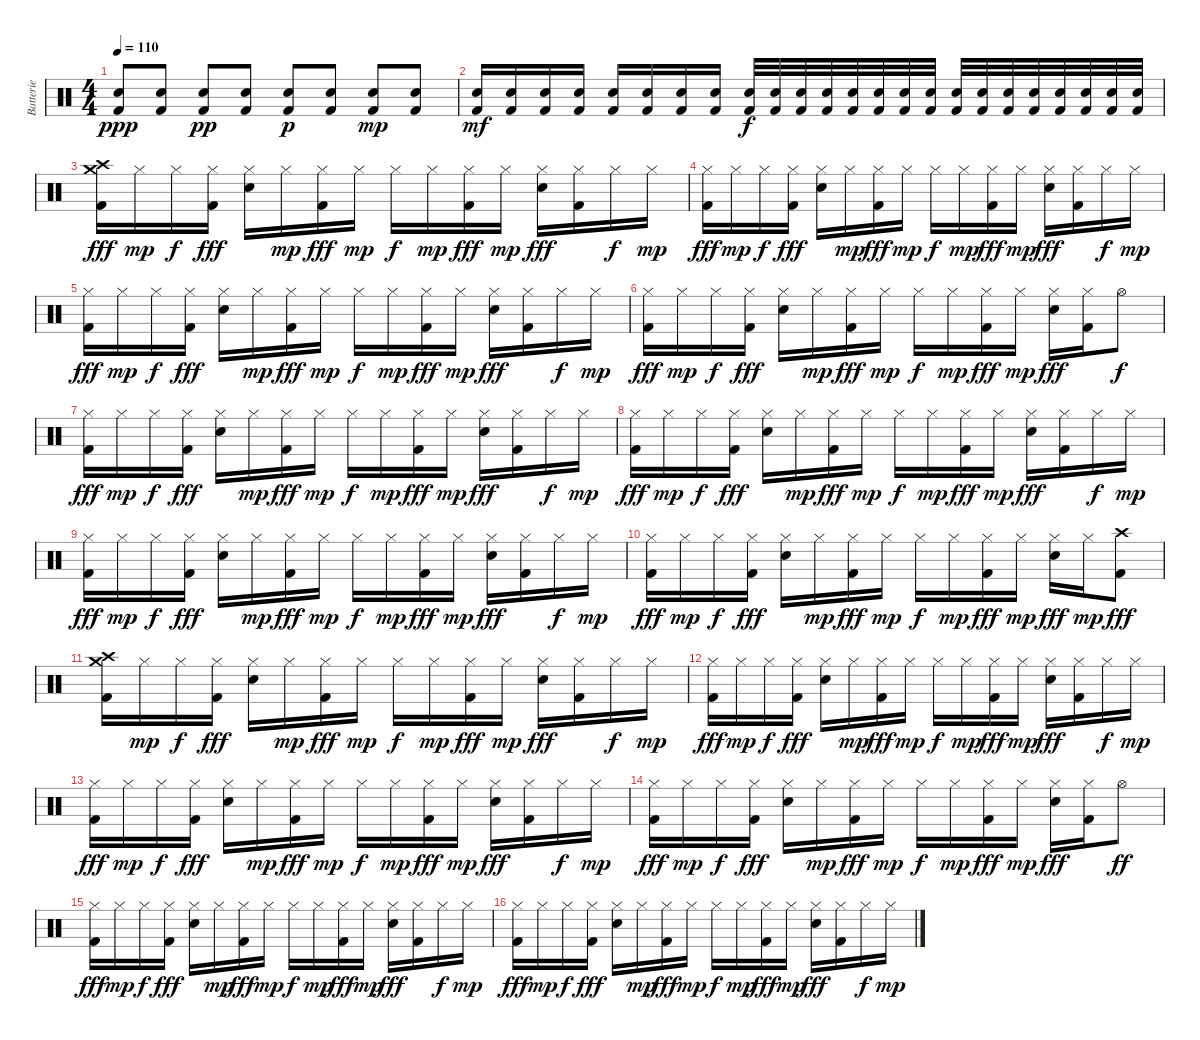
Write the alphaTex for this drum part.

\track ("Batterie" "Batterie") {instrument percussion}
\staff {score}
\articulation defaults
\ts (4 4)
\tempo 110
\clef neutral
\ks c
("Electric Snare (hit)" "Kick (hit) 2").8{dy ppp} ("Electric Snare (hit)" "Kick (hit) 2").8 ("Electric Snare (hit)" "Kick (hit) 2").8{dy pp} ("Electric Snare (hit)" "Kick (hit) 2").8 ("Electric Snare (hit)" "Kick (hit) 2").8{dy p} ("Electric Snare (hit)" "Kick (hit) 2").8 ("Electric Snare (hit)" "Kick (hit) 2").8{dy mp} ("Electric Snare (hit)" "Kick (hit) 2").8 |
("Electric Snare (hit)" "Kick (hit) 2").16{dy mf} ("Electric Snare (hit)" "Kick (hit) 2").16 ("Electric Snare (hit)" "Kick (hit) 2").16 ("Electric Snare (hit)" "Kick (hit) 2").16 ("Electric Snare (hit)" "Kick (hit) 2").16 ("Electric Snare (hit)" "Kick (hit) 2").16 ("Electric Snare (hit)" "Kick (hit) 2").16 ("Electric Snare (hit)" "Kick (hit) 2").16 ("Electric Snare (hit)" "Kick (hit) 2").32{dy f} ("Electric Snare (hit)" "Kick (hit) 2").32 ("Electric Snare (hit)" "Kick (hit) 2").32 ("Electric Snare (hit)" "Kick (hit) 2").32 ("Electric Snare (hit)" "Kick (hit) 2").32 ("Electric Snare (hit)" "Kick (hit) 2").32 ("Electric Snare (hit)" "Kick (hit) 2").32 ("Electric Snare (hit)" "Kick (hit) 2").32 ("Electric Snare (hit)" "Kick (hit) 2").32 ("Electric Snare (hit)" "Kick (hit) 2").32 ("Electric Snare (hit)" "Kick (hit) 2").32 ("Electric Snare (hit)" "Kick (hit) 2").32 ("Electric Snare (hit)" "Kick (hit) 2").32 ("Electric Snare (hit)" "Kick (hit) 2").32 ("Electric Snare (hit)" "Kick (hit) 2").32 ("Electric Snare (hit)" "Kick (hit) 2").32 |
("Crash medium (hit)" "Crash high (hit)" "Kick (hit) 2").16{dy fff} "Hi-Hat (closed)".16{dy mp} "Hi-Hat (closed)".16{dy f} ("Hi-Hat (closed)" "Kick (hit) 2").16{dy fff} ("Hi-Hat (closed)" "Snare (hit) 2").16 "Hi-Hat (closed)".16{dy mp} ("Hi-Hat (closed)" "Kick (hit) 2").16{dy fff} "Hi-Hat (closed)".16{dy mp} "Hi-Hat (closed)".16{dy f} "Hi-Hat (closed)".16{dy mp} ("Hi-Hat (closed)" "Kick (hit) 2").16{dy fff} "Hi-Hat (closed)".16{dy mp} ("Hi-Hat (closed)" "Snare (hit) 2").16{dy fff} ("Hi-Hat (closed)" "Kick (hit) 2").16 "Hi-Hat (closed)".16{dy f} "Hi-Hat (closed)".16{dy mp} |
("Hi-Hat (closed)" "Kick (hit) 2").16{dy fff} "Hi-Hat (closed)".16{dy mp} "Hi-Hat (closed)".16{dy f} ("Hi-Hat (closed)" "Kick (hit) 2").16{dy fff} ("Hi-Hat (closed)" "Snare (hit) 2").16 "Hi-Hat (closed)".16{dy mp} ("Hi-Hat (closed)" "Kick (hit) 2").16{dy fff} "Hi-Hat (closed)".16{dy mp} "Hi-Hat (closed)".16{dy f} "Hi-Hat (closed)".16{dy mp} ("Hi-Hat (closed)" "Kick (hit) 2").16{dy fff} "Hi-Hat (closed)".16{dy mp} ("Hi-Hat (closed)" "Snare (hit) 2").16{dy fff} ("Hi-Hat (closed)" "Kick (hit) 2").16 "Hi-Hat (closed)".16{dy f} "Hi-Hat (closed)".16{dy mp} |
("Hi-Hat (closed)" "Kick (hit) 2").16{dy fff} "Hi-Hat (closed)".16{dy mp} "Hi-Hat (closed)".16{dy f} ("Hi-Hat (closed)" "Kick (hit) 2").16{dy fff} ("Hi-Hat (closed)" "Snare (hit) 2").16 "Hi-Hat (closed)".16{dy mp} ("Hi-Hat (closed)" "Kick (hit) 2").16{dy fff} "Hi-Hat (closed)".16{dy mp} "Hi-Hat (closed)".16{dy f} "Hi-Hat (closed)".16{dy mp} ("Hi-Hat (closed)" "Kick (hit) 2").16{dy fff} "Hi-Hat (closed)".16{dy mp} ("Hi-Hat (closed)" "Snare (hit) 2").16{dy fff} ("Hi-Hat (closed)" "Kick (hit) 2").16 "Hi-Hat (closed)".16{dy f} "Hi-Hat (closed)".16{dy mp} |
("Hi-Hat (closed)" "Kick (hit) 2").16{dy fff} "Hi-Hat (closed)".16{dy mp} "Hi-Hat (closed)".16{dy f} ("Hi-Hat (closed)" "Kick (hit) 2").16{dy fff} ("Hi-Hat (closed)" "Snare (hit) 2").16 "Hi-Hat (closed)".16{dy mp} ("Hi-Hat (closed)" "Kick (hit) 2").16{dy fff} "Hi-Hat (closed)".16{dy mp} "Hi-Hat (closed)".16{dy f} "Hi-Hat (closed)".16{dy mp} ("Hi-Hat (closed)" "Kick (hit) 2").16{dy fff} "Hi-Hat (closed)".16{dy mp} ("Hi-Hat (closed)" "Snare (hit) 2").16{dy fff} ("Hi-Hat (closed)" "Kick (hit) 2").16 "Hi-Hat (open)".8{dy f} |
("Hi-Hat (closed)" "Kick (hit) 2").16{dy fff} "Hi-Hat (closed)".16{dy mp} "Hi-Hat (closed)".16{dy f} ("Hi-Hat (closed)" "Kick (hit) 2").16{dy fff} ("Hi-Hat (closed)" "Snare (hit) 2").16 "Hi-Hat (closed)".16{dy mp} ("Hi-Hat (closed)" "Kick (hit) 2").16{dy fff} "Hi-Hat (closed)".16{dy mp} "Hi-Hat (closed)".16{dy f} "Hi-Hat (closed)".16{dy mp} ("Hi-Hat (closed)" "Kick (hit) 2").16{dy fff} "Hi-Hat (closed)".16{dy mp} ("Hi-Hat (closed)" "Snare (hit) 2").16{dy fff} ("Hi-Hat (closed)" "Kick (hit) 2").16 "Hi-Hat (closed)".16{dy f} "Hi-Hat (closed)".16{dy mp} |
("Hi-Hat (closed)" "Kick (hit) 2").16{dy fff} "Hi-Hat (closed)".16{dy mp} "Hi-Hat (closed)".16{dy f} ("Hi-Hat (closed)" "Kick (hit) 2").16{dy fff} ("Hi-Hat (closed)" "Snare (hit) 2").16 "Hi-Hat (closed)".16{dy mp} ("Hi-Hat (closed)" "Kick (hit) 2").16{dy fff} "Hi-Hat (closed)".16{dy mp} "Hi-Hat (closed)".16{dy f} "Hi-Hat (closed)".16{dy mp} ("Hi-Hat (closed)" "Kick (hit) 2").16{dy fff} "Hi-Hat (closed)".16{dy mp} ("Hi-Hat (closed)" "Snare (hit) 2").16{dy fff} ("Hi-Hat (closed)" "Kick (hit) 2").16 "Hi-Hat (closed)".16{dy f} "Hi-Hat (closed)".16{dy mp} |
("Hi-Hat (closed)" "Kick (hit) 2").16{dy fff} "Hi-Hat (closed)".16{dy mp} "Hi-Hat (closed)".16{dy f} ("Hi-Hat (closed)" "Kick (hit) 2").16{dy fff} ("Hi-Hat (closed)" "Snare (hit) 2").16 "Hi-Hat (closed)".16{dy mp} ("Hi-Hat (closed)" "Kick (hit) 2").16{dy fff} "Hi-Hat (closed)".16{dy mp} "Hi-Hat (closed)".16{dy f} "Hi-Hat (closed)".16{dy mp} ("Hi-Hat (closed)" "Kick (hit) 2").16{dy fff} "Hi-Hat (closed)".16{dy mp} ("Hi-Hat (closed)" "Snare (hit) 2").16{dy fff} ("Hi-Hat (closed)" "Kick (hit) 2").16 "Hi-Hat (closed)".16{dy f} "Hi-Hat (closed)".16{dy mp} |
("Hi-Hat (closed)" "Kick (hit) 2").16{dy fff} "Hi-Hat (closed)".16{dy mp} "Hi-Hat (closed)".16{dy f} ("Hi-Hat (closed)" "Kick (hit) 2").16{dy fff} ("Hi-Hat (closed)" "Snare (hit) 2").16 "Hi-Hat (closed)".16{dy mp} ("Hi-Hat (closed)" "Kick (hit) 2").16{dy fff} "Hi-Hat (closed)".16{dy mp} "Hi-Hat (closed)".16{dy f} "Hi-Hat (closed)".16{dy mp} ("Hi-Hat (closed)" "Kick (hit) 2").16{dy fff} "Hi-Hat (closed)".16{dy mp} ("Hi-Hat (closed)" "Snare (hit) 2").16{dy fff} "Hi-Hat (closed)".16{dy mp} ("Crash high (hit)" "Kick (hit) 2").8{dy fff} |
("Crash medium (hit)" "Crash high (hit)" "Kick (hit) 2").16 "Hi-Hat (closed)".16{dy mp} "Hi-Hat (closed)".16{dy f} ("Hi-Hat (closed)" "Kick (hit) 2").16{dy fff} ("Hi-Hat (closed)" "Snare (hit) 2").16 "Hi-Hat (closed)".16{dy mp} ("Hi-Hat (closed)" "Kick (hit) 2").16{dy fff} "Hi-Hat (closed)".16{dy mp} "Hi-Hat (closed)".16{dy f} "Hi-Hat (closed)".16{dy mp} ("Hi-Hat (closed)" "Kick (hit) 2").16{dy fff} "Hi-Hat (closed)".16{dy mp} ("Hi-Hat (closed)" "Snare (hit) 2").16{dy fff} ("Hi-Hat (closed)" "Kick (hit) 2").16 "Hi-Hat (closed)".16{dy f} "Hi-Hat (closed)".16{dy mp} |
("Hi-Hat (closed)" "Kick (hit) 2").16{dy fff} "Hi-Hat (closed)".16{dy mp} "Hi-Hat (closed)".16{dy f} ("Hi-Hat (closed)" "Kick (hit) 2").16{dy fff} ("Hi-Hat (closed)" "Snare (hit) 2").16 "Hi-Hat (closed)".16{dy mp} ("Hi-Hat (closed)" "Kick (hit) 2").16{dy fff} "Hi-Hat (closed)".16{dy mp} "Hi-Hat (closed)".16{dy f} "Hi-Hat (closed)".16{dy mp} ("Hi-Hat (closed)" "Kick (hit) 2").16{dy fff} "Hi-Hat (closed)".16{dy mp} ("Hi-Hat (closed)" "Snare (hit) 2").16{dy fff} ("Hi-Hat (closed)" "Kick (hit) 2").16 "Hi-Hat (closed)".16{dy f} "Hi-Hat (closed)".16{dy mp} |
("Hi-Hat (closed)" "Kick (hit) 2").16{dy fff} "Hi-Hat (closed)".16{dy mp} "Hi-Hat (closed)".16{dy f} ("Hi-Hat (closed)" "Kick (hit) 2").16{dy fff} ("Hi-Hat (closed)" "Snare (hit) 2").16 "Hi-Hat (closed)".16{dy mp} ("Hi-Hat (closed)" "Kick (hit) 2").16{dy fff} "Hi-Hat (closed)".16{dy mp} "Hi-Hat (closed)".16{dy f} "Hi-Hat (closed)".16{dy mp} ("Hi-Hat (closed)" "Kick (hit) 2").16{dy fff} "Hi-Hat (closed)".16{dy mp} ("Hi-Hat (closed)" "Snare (hit) 2").16{dy fff} ("Hi-Hat (closed)" "Kick (hit) 2").16 "Hi-Hat (closed)".16{dy f} "Hi-Hat (closed)".16{dy mp} |
("Hi-Hat (closed)" "Kick (hit) 2").16{dy fff} "Hi-Hat (closed)".16{dy mp} "Hi-Hat (closed)".16{dy f} ("Hi-Hat (closed)" "Kick (hit) 2").16{dy fff} ("Hi-Hat (closed)" "Snare (hit) 2").16 "Hi-Hat (closed)".16{dy mp} ("Hi-Hat (closed)" "Kick (hit) 2").16{dy fff} "Hi-Hat (closed)".16{dy mp} "Hi-Hat (closed)".16{dy f} "Hi-Hat (closed)".16{dy mp} ("Hi-Hat (closed)" "Kick (hit) 2").16{dy fff} "Hi-Hat (closed)".16{dy mp} ("Hi-Hat (closed)" "Snare (hit) 2").16{dy fff} ("Hi-Hat (closed)" "Kick (hit) 2").16 "Hi-Hat (open)".8{dy ff} |
("Hi-Hat (closed)" "Kick (hit) 2").16{dy fff} "Hi-Hat (closed)".16{dy mp} "Hi-Hat (closed)".16{dy f} ("Hi-Hat (closed)" "Kick (hit) 2").16{dy fff} ("Hi-Hat (closed)" "Snare (hit) 2").16 "Hi-Hat (closed)".16{dy mp} ("Hi-Hat (closed)" "Kick (hit) 2").16{dy fff} "Hi-Hat (closed)".16{dy mp} "Hi-Hat (closed)".16{dy f} "Hi-Hat (closed)".16{dy mp} ("Hi-Hat (closed)" "Kick (hit) 2").16{dy fff} "Hi-Hat (closed)".16{dy mp} ("Hi-Hat (closed)" "Snare (hit) 2").16{dy fff} ("Hi-Hat (closed)" "Kick (hit) 2").16 "Hi-Hat (closed)".16{dy f} "Hi-Hat (closed)".16{dy mp} |
("Hi-Hat (closed)" "Kick (hit) 2").16{dy fff} "Hi-Hat (closed)".16{dy mp} "Hi-Hat (closed)".16{dy f} ("Hi-Hat (closed)" "Kick (hit) 2").16{dy fff} ("Hi-Hat (closed)" "Snare (hit) 2").16 "Hi-Hat (closed)".16{dy mp} ("Hi-Hat (closed)" "Kick (hit) 2").16{dy fff} "Hi-Hat (closed)".16{dy mp} "Hi-Hat (closed)".16{dy f} "Hi-Hat (closed)".16{dy mp} ("Hi-Hat (closed)" "Kick (hit) 2").16{dy fff} "Hi-Hat (closed)".16{dy mp} ("Hi-Hat (closed)" "Snare (hit) 2").16{dy fff} ("Hi-Hat (closed)" "Kick (hit) 2").16 "Hi-Hat (closed)".16{dy f} "Hi-Hat (closed)".16{dy mp}
